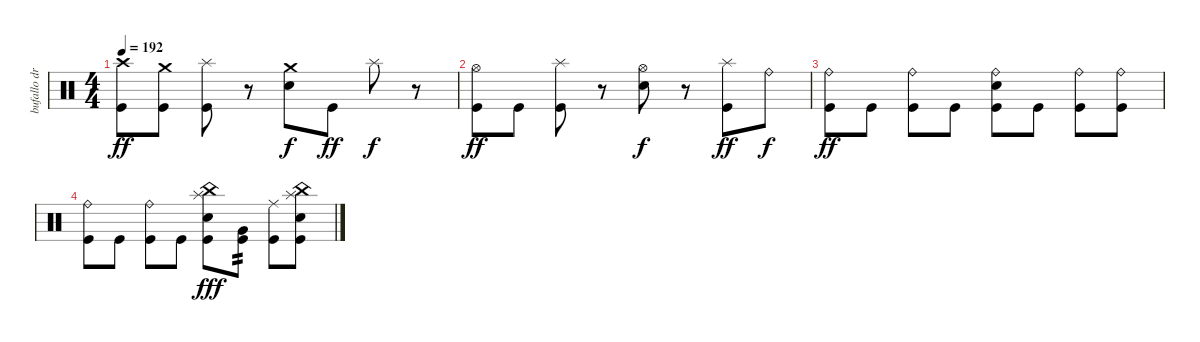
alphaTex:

\track ("bufallo drums" "bufallo dr") {instrument percussion}
\staff {score}
\articulation defaults
\ts (4 4)
\tempo 192
\clef neutral
\ks c
("Crash high (hit)" "Kick (hit)").8{dy ff} ("Crash medium (hit)" "Kick (hit)").8 ("Splash (hit)" "Kick (hit)").8 r.8 ("Crash medium (hit)" "Electric Snare (hit)").8{dy f} "Kick (hit)".8{dy ff} "Splash (hit)".8{dy f} r.8 |
("Hi-Hat (open)" "Kick (hit)").8{dy ff} "Kick (hit)".8 ("Splash (hit)" "Kick (hit)").8 r.8 ("Hi-Hat (open)" "Electric Snare (hit)").8{dy f} r.8 ("Splash (hit)" "Kick (hit)").8{dy ff} "Ride (bell)".8{dy f} |
("Ride (bell)" "Kick (hit)").8{dy ff} "Kick (hit)".8 ("Ride (bell)" "Kick (hit)").8 "Kick (hit)".8 ("Ride (bell)" "Electric Snare (hit)" "Kick (hit)").8 "Kick (hit)".8 ("Ride (bell)" "Kick (hit)").8 ("Ride (bell)" "Kick (hit)").8 |
("Ride (bell)" "Kick (hit)").8 "Kick (hit)".8 ("Ride (bell)" "Kick (hit)").8 "Kick (hit)".8 ("Splash (hit)" "China (hit)" "Electric Snare (hit)" "Kick (hit)").8{dy fff} ("Very Low Tom (hit)" "Kick (hit)").8{tp 2} ("Ride (middle)" "Kick (hit)").8 ("Splash (hit)" "China (hit)" "Electric Snare (hit)" "Kick (hit)").8
